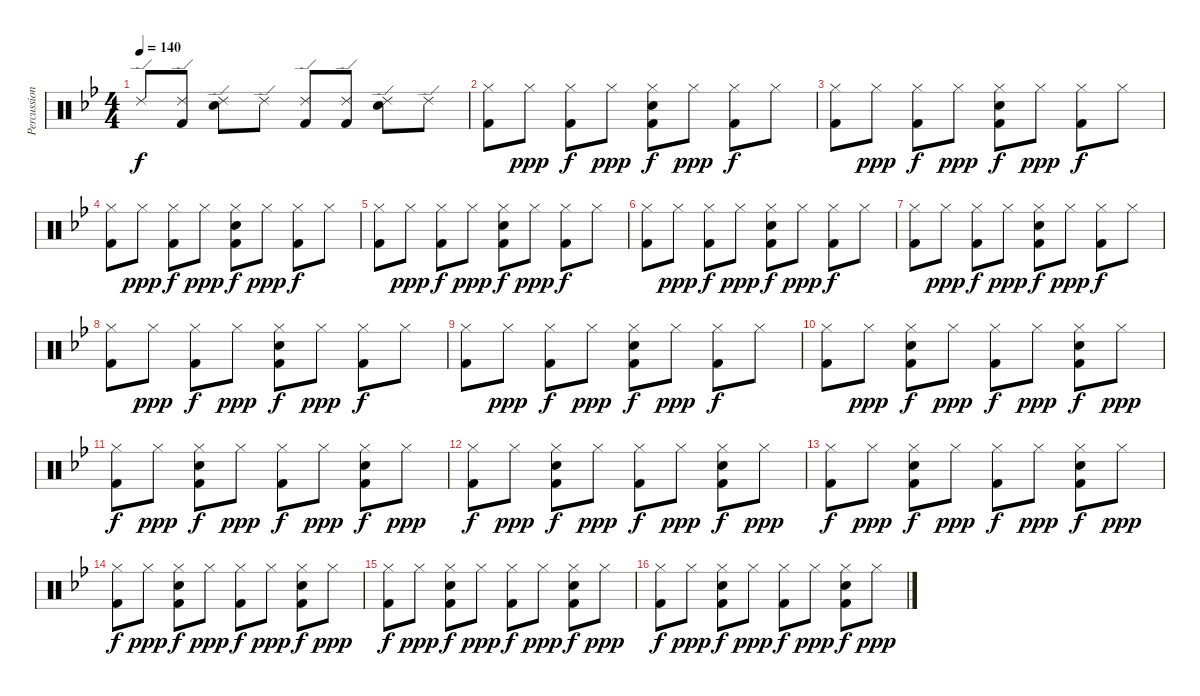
\track ("Percussion" "Percussion") {instrument percussion}
\staff {score}
\articulation defaults
\ts (4 4)
\tempo 140
\clef neutral
\ks bb "Ride (edge) 2".8{dy f}
("Ride (edge) 2" "Kick (hit) 2").8 ("Ride (edge) 2" "Electric Snare (hit)").8 "Ride (edge) 2".8 ("Ride (edge) 2" "Kick (hit) 2").8 ("Ride (edge) 2" "Kick (hit) 2").8 ("Ride (edge) 2" "Electric Snare (hit)").8 "Ride (edge) 2".8 |
("Hi-Hat (closed)" "Kick (hit) 2").8 "Hi-Hat (closed)".8{dy ppp} ("Hi-Hat (closed)" "Kick (hit) 2").8{dy f} "Hi-Hat (closed)".8{dy ppp} ("Hi-Hat (closed)" "Electric Snare (hit)" "Kick (hit) 2").8{dy f} "Hi-Hat (closed)".8{dy ppp} ("Hi-Hat (closed)" "Kick (hit) 2").8{dy f} "Hi-Hat (closed)".8 |
("Hi-Hat (closed)" "Kick (hit) 2").8 "Hi-Hat (closed)".8{dy ppp} ("Hi-Hat (closed)" "Kick (hit) 2").8{dy f} "Hi-Hat (closed)".8{dy ppp} ("Hi-Hat (closed)" "Electric Snare (hit)" "Kick (hit) 2").8{dy f} "Hi-Hat (closed)".8{dy ppp} ("Hi-Hat (closed)" "Kick (hit) 2").8{dy f} "Hi-Hat (closed)".8 |
("Hi-Hat (closed)" "Kick (hit) 2").8 "Hi-Hat (closed)".8{dy ppp} ("Hi-Hat (closed)" "Kick (hit) 2").8{dy f} "Hi-Hat (closed)".8{dy ppp} ("Hi-Hat (closed)" "Electric Snare (hit)" "Kick (hit) 2").8{dy f} "Hi-Hat (closed)".8{dy ppp} ("Hi-Hat (closed)" "Kick (hit) 2").8{dy f} "Hi-Hat (closed)".8 |
("Hi-Hat (closed)" "Kick (hit) 2").8 "Hi-Hat (closed)".8{dy ppp} ("Hi-Hat (closed)" "Kick (hit) 2").8{dy f} "Hi-Hat (closed)".8{dy ppp} ("Hi-Hat (closed)" "Electric Snare (hit)" "Kick (hit) 2").8{dy f} "Hi-Hat (closed)".8{dy ppp} ("Hi-Hat (closed)" "Kick (hit) 2").8{dy f} "Hi-Hat (closed)".8 |
("Hi-Hat (closed)" "Kick (hit) 2").8 "Hi-Hat (closed)".8{dy ppp} ("Hi-Hat (closed)" "Kick (hit) 2").8{dy f} "Hi-Hat (closed)".8{dy ppp} ("Hi-Hat (closed)" "Electric Snare (hit)" "Kick (hit) 2").8{dy f} "Hi-Hat (closed)".8{dy ppp} ("Hi-Hat (closed)" "Kick (hit) 2").8{dy f} "Hi-Hat (closed)".8 |
("Hi-Hat (closed)" "Kick (hit) 2").8 "Hi-Hat (closed)".8{dy ppp} ("Hi-Hat (closed)" "Kick (hit) 2").8{dy f} "Hi-Hat (closed)".8{dy ppp} ("Hi-Hat (closed)" "Electric Snare (hit)" "Kick (hit) 2").8{dy f} "Hi-Hat (closed)".8{dy ppp} ("Hi-Hat (closed)" "Kick (hit) 2").8{dy f} "Hi-Hat (closed)".8 |
("Hi-Hat (closed)" "Kick (hit) 2").8 "Hi-Hat (closed)".8{dy ppp} ("Hi-Hat (closed)" "Kick (hit) 2").8{dy f} "Hi-Hat (closed)".8{dy ppp} ("Hi-Hat (closed)" "Electric Snare (hit)" "Kick (hit) 2").8{dy f} "Hi-Hat (closed)".8{dy ppp} ("Hi-Hat (closed)" "Kick (hit) 2").8{dy f} "Hi-Hat (closed)".8 |
("Hi-Hat (closed)" "Kick (hit) 2").8 "Hi-Hat (closed)".8{dy ppp} ("Hi-Hat (closed)" "Kick (hit) 2").8{dy f} "Hi-Hat (closed)".8{dy ppp} ("Hi-Hat (closed)" "Electric Snare (hit)" "Kick (hit) 2").8{dy f} "Hi-Hat (closed)".8{dy ppp} ("Hi-Hat (closed)" "Kick (hit) 2").8{dy f} "Hi-Hat (closed)".8 |
("Hi-Hat (closed)" "Kick (hit) 2").8 "Hi-Hat (closed)".8{dy ppp} ("Hi-Hat (closed)" "Electric Snare (hit)" "Kick (hit) 2").8{dy f} "Hi-Hat (closed)".8{dy ppp} ("Hi-Hat (closed)" "Kick (hit) 2").8{dy f} "Hi-Hat (closed)".8{dy ppp} ("Hi-Hat (closed)" "Electric Snare (hit)" "Kick (hit) 2").8{dy f} "Hi-Hat (closed)".8{dy ppp} |
("Hi-Hat (closed)" "Kick (hit) 2").8{dy f} "Hi-Hat (closed)".8{dy ppp} ("Hi-Hat (closed)" "Electric Snare (hit)" "Kick (hit) 2").8{dy f} "Hi-Hat (closed)".8{dy ppp} ("Hi-Hat (closed)" "Kick (hit) 2").8{dy f} "Hi-Hat (closed)".8{dy ppp} ("Hi-Hat (closed)" "Electric Snare (hit)" "Kick (hit) 2").8{dy f} "Hi-Hat (closed)".8{dy ppp} |
("Hi-Hat (closed)" "Kick (hit) 2").8{dy f} "Hi-Hat (closed)".8{dy ppp} ("Hi-Hat (closed)" "Electric Snare (hit)" "Kick (hit) 2").8{dy f} "Hi-Hat (closed)".8{dy ppp} ("Hi-Hat (closed)" "Kick (hit) 2").8{dy f} "Hi-Hat (closed)".8{dy ppp} ("Hi-Hat (closed)" "Electric Snare (hit)" "Kick (hit) 2").8{dy f} "Hi-Hat (closed)".8{dy ppp} |
("Hi-Hat (closed)" "Kick (hit) 2").8{dy f} "Hi-Hat (closed)".8{dy ppp} ("Hi-Hat (closed)" "Electric Snare (hit)" "Kick (hit) 2").8{dy f} "Hi-Hat (closed)".8{dy ppp} ("Hi-Hat (closed)" "Kick (hit) 2").8{dy f} "Hi-Hat (closed)".8{dy ppp} ("Hi-Hat (closed)" "Electric Snare (hit)" "Kick (hit) 2").8{dy f} "Hi-Hat (closed)".8{dy ppp} |
("Hi-Hat (closed)" "Kick (hit) 2").8{dy f} "Hi-Hat (closed)".8{dy ppp} ("Hi-Hat (closed)" "Electric Snare (hit)" "Kick (hit) 2").8{dy f} "Hi-Hat (closed)".8{dy ppp} ("Hi-Hat (closed)" "Kick (hit) 2").8{dy f} "Hi-Hat (closed)".8{dy ppp} ("Hi-Hat (closed)" "Electric Snare (hit)" "Kick (hit) 2").8{dy f} "Hi-Hat (closed)".8{dy ppp} |
("Hi-Hat (closed)" "Kick (hit) 2").8{dy f} "Hi-Hat (closed)".8{dy ppp} ("Hi-Hat (closed)" "Electric Snare (hit)" "Kick (hit) 2").8{dy f} "Hi-Hat (closed)".8{dy ppp} ("Hi-Hat (closed)" "Kick (hit) 2").8{dy f} "Hi-Hat (closed)".8{dy ppp} ("Hi-Hat (closed)" "Electric Snare (hit)" "Kick (hit) 2").8{dy f} "Hi-Hat (closed)".8{dy ppp} |
("Hi-Hat (closed)" "Kick (hit) 2").8{dy f} "Hi-Hat (closed)".8{dy ppp} ("Hi-Hat (closed)" "Electric Snare (hit)" "Kick (hit) 2").8{dy f} "Hi-Hat (closed)".8{dy ppp} ("Hi-Hat (closed)" "Kick (hit) 2").8{dy f} "Hi-Hat (closed)".8{dy ppp} ("Hi-Hat (closed)" "Electric Snare (hit)" "Kick (hit) 2").8{dy f} "Hi-Hat (closed)".8{dy ppp}
